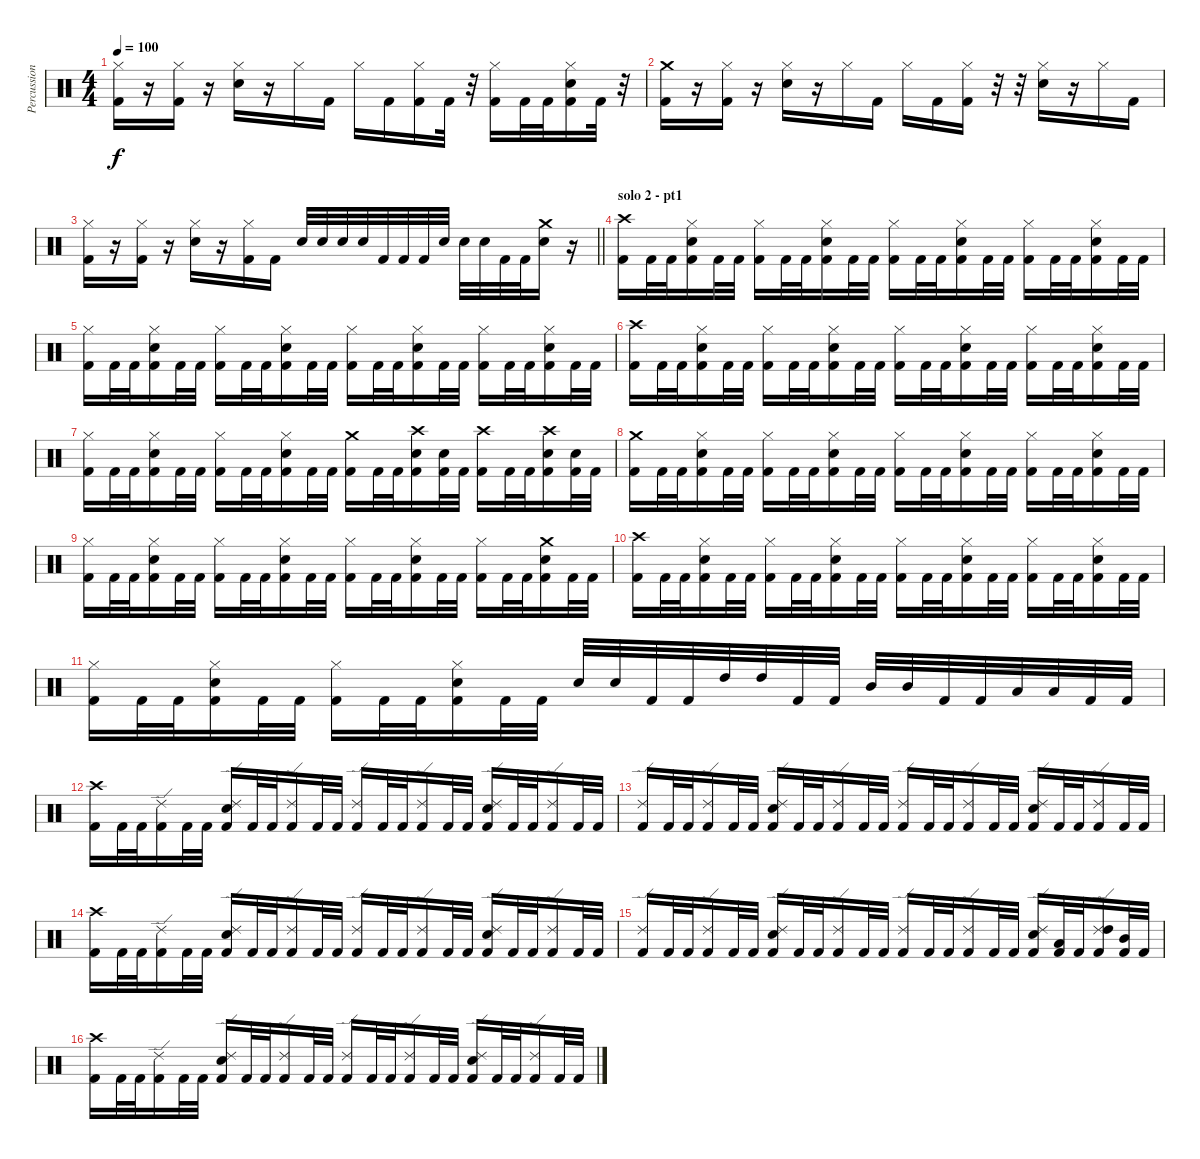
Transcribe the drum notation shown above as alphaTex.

\track ("Percussion" "Percussion") {instrument percussion}
\staff {score}
\articulation defaults
\ts (4 4)
\tempo 100
\clef neutral
\ks c
("Hi-Hat (closed)" "Kick (hit) 2").16{dy f} r.16 ("Hi-Hat (closed)" "Kick (hit) 2").16 r.16 ("Hi-Hat (closed)" "Electric Snare (hit)").16 r.16 "Hi-Hat (closed)".16 "Kick (hit) 2".16 "Hi-Hat (closed)".16 "Kick (hit) 2".16 ("Hi-Hat (closed)" "Kick (hit) 2").16 "Kick (hit) 2".32 r.32 ("Hi-Hat (closed)" "Kick (hit) 2").16 "Kick (hit) 2".32 "Kick (hit) 2".32 ("Hi-Hat (closed)" "Electric Snare (hit)" "Kick (hit) 2").16 "Kick (hit) 2".32 r.32 |
("Crash medium (hit)" "Kick (hit) 2").16 r.16 ("Hi-Hat (closed)" "Kick (hit) 2").16 r.16 ("Hi-Hat (closed)" "Electric Snare (hit)").16 r.16 "Hi-Hat (closed)".16 "Kick (hit) 2".16 "Hi-Hat (closed)".16 "Kick (hit) 2".16 ("Hi-Hat (closed)" "Kick (hit) 2").16 r.32 r.32 ("Hi-Hat (closed)" "Electric Snare (hit)").16 r.16 "Hi-Hat (closed)".16 "Kick (hit) 2".16 |
\barLineRight lightlight
("Hi-Hat (closed)" "Kick (hit) 2").16 r.16 ("Hi-Hat (closed)" "Kick (hit) 2").16 r.16 ("Hi-Hat (closed)" "Electric Snare (hit)").16 r.16 ("Hi-Hat (closed)" "Kick (hit) 2").16 "Kick (hit) 2".16 "Electric Snare (hit)".32 "Electric Snare (hit)".32 "Electric Snare (hit)".32 "Electric Snare (hit)".32 "Kick (hit) 2".32 "Kick (hit) 2".32 "Kick (hit) 2".32 "Electric Snare (hit)".32 "Electric Snare (hit)".32 "Electric Snare (hit)".32 "Kick (hit) 2".32 "Kick (hit) 2".32 ("Crash medium (hit)" "Electric Snare (hit)").16 r.16 |
\section ("" "solo 2 - pt1")
("Crash high (hit)" "Kick (hit) 2").16 "Kick (hit) 2".32 "Kick (hit) 2".32 ("Hi-Hat (closed)" "Electric Snare (hit)" "Kick (hit) 2").16 "Kick (hit) 2".32 "Kick (hit) 2".32 ("Hi-Hat (closed)" "Kick (hit) 2").16 "Kick (hit) 2".32 "Kick (hit) 2".32 ("Hi-Hat (closed)" "Electric Snare (hit)" "Kick (hit) 2").16 "Kick (hit) 2".32 "Kick (hit) 2".32 ("Hi-Hat (closed)" "Kick (hit) 2").16 "Kick (hit) 2".32 "Kick (hit) 2".32 ("Hi-Hat (closed)" "Electric Snare (hit)" "Kick (hit) 2").16 "Kick (hit) 2".32 "Kick (hit) 2".32 ("Hi-Hat (closed)" "Kick (hit) 2").16 "Kick (hit) 2".32 "Kick (hit) 2".32 ("Hi-Hat (closed)" "Electric Snare (hit)" "Kick (hit) 2").16 "Kick (hit) 2".32 "Kick (hit) 2".32 |
("Hi-Hat (closed)" "Kick (hit) 2").16 "Kick (hit) 2".32 "Kick (hit) 2".32 ("Hi-Hat (closed)" "Electric Snare (hit)" "Kick (hit) 2").16 "Kick (hit) 2".32 "Kick (hit) 2".32 ("Hi-Hat (closed)" "Kick (hit) 2").16 "Kick (hit) 2".32 "Kick (hit) 2".32 ("Hi-Hat (closed)" "Electric Snare (hit)" "Kick (hit) 2").16 "Kick (hit) 2".32 "Kick (hit) 2".32 ("Hi-Hat (closed)" "Kick (hit) 2").16 "Kick (hit) 2".32 "Kick (hit) 2".32 ("Hi-Hat (closed)" "Electric Snare (hit)" "Kick (hit) 2").16 "Kick (hit) 2".32 "Kick (hit) 2".32 ("Hi-Hat (closed)" "Kick (hit) 2").16 "Kick (hit) 2".32 "Kick (hit) 2".32 ("Hi-Hat (closed)" "Electric Snare (hit)" "Kick (hit) 2").16 "Kick (hit) 2".32 "Kick (hit) 2".32 |
("Crash high (hit)" "Kick (hit) 2").16 "Kick (hit) 2".32 "Kick (hit) 2".32 ("Hi-Hat (closed)" "Electric Snare (hit)" "Kick (hit) 2").16 "Kick (hit) 2".32 "Kick (hit) 2".32 ("Hi-Hat (closed)" "Kick (hit) 2").16 "Kick (hit) 2".32 "Kick (hit) 2".32 ("Hi-Hat (closed)" "Electric Snare (hit)" "Kick (hit) 2").16 "Kick (hit) 2".32 "Kick (hit) 2".32 ("Hi-Hat (closed)" "Kick (hit) 2").16 "Kick (hit) 2".32 "Kick (hit) 2".32 ("Hi-Hat (closed)" "Electric Snare (hit)" "Kick (hit) 2").16 "Kick (hit) 2".32 "Kick (hit) 2".32 ("Hi-Hat (closed)" "Kick (hit) 2").16 "Kick (hit) 2".32 "Kick (hit) 2".32 ("Hi-Hat (closed)" "Electric Snare (hit)" "Kick (hit) 2").16 "Kick (hit) 2".32 "Kick (hit) 2".32 |
("Hi-Hat (closed)" "Kick (hit) 2").16 "Kick (hit) 2".32 "Kick (hit) 2".32 ("Hi-Hat (closed)" "Electric Snare (hit)" "Kick (hit) 2").16 "Kick (hit) 2".32 "Kick (hit) 2".32 ("Hi-Hat (closed)" "Kick (hit) 2").16 "Kick (hit) 2".32 "Kick (hit) 2".32 ("Hi-Hat (closed)" "Electric Snare (hit)" "Kick (hit) 2").16 "Kick (hit) 2".32 "Kick (hit) 2".32 ("Crash medium (hit)" "Kick (hit) 2").16 "Kick (hit) 2".32 "Kick (hit) 2".32 ("Crash high (hit)" "Electric Snare (hit)" "Kick (hit) 2").16 ("Electric Snare (hit)" "Kick (hit) 2").32 "Kick (hit) 2".32 ("Crash high (hit)" "Kick (hit) 2").16 "Kick (hit) 2".32 "Kick (hit) 2".32 ("Crash high (hit)" "Electric Snare (hit)" "Kick (hit) 2").16 ("Electric Snare (hit)" "Kick (hit) 2").32 "Kick (hit) 2".32 |
("Crash medium (hit)" "Kick (hit) 2").16 "Kick (hit) 2".32 "Kick (hit) 2".32 ("Hi-Hat (closed)" "Electric Snare (hit)" "Kick (hit) 2").16 "Kick (hit) 2".32 "Kick (hit) 2".32 ("Hi-Hat (closed)" "Kick (hit) 2").16 "Kick (hit) 2".32 "Kick (hit) 2".32 ("Hi-Hat (closed)" "Electric Snare (hit)" "Kick (hit) 2").16 "Kick (hit) 2".32 "Kick (hit) 2".32 ("Hi-Hat (closed)" "Kick (hit) 2").16 "Kick (hit) 2".32 "Kick (hit) 2".32 ("Hi-Hat (closed)" "Electric Snare (hit)" "Kick (hit) 2").16 "Kick (hit) 2".32 "Kick (hit) 2".32 ("Hi-Hat (closed)" "Kick (hit) 2").16 "Kick (hit) 2".32 "Kick (hit) 2".32 ("Hi-Hat (closed)" "Electric Snare (hit)" "Kick (hit) 2").16 "Kick (hit) 2".32 "Kick (hit) 2".32 |
("Hi-Hat (closed)" "Kick (hit) 2").16 "Kick (hit) 2".32 "Kick (hit) 2".32 ("Hi-Hat (closed)" "Electric Snare (hit)" "Kick (hit) 2").16 "Kick (hit) 2".32 "Kick (hit) 2".32 ("Hi-Hat (closed)" "Kick (hit) 2").16 "Kick (hit) 2".32 "Kick (hit) 2".32 ("Hi-Hat (closed)" "Electric Snare (hit)" "Kick (hit) 2").16 "Kick (hit) 2".32 "Kick (hit) 2".32 ("Hi-Hat (closed)" "Kick (hit) 2").16 "Kick (hit) 2".32 "Kick (hit) 2".32 ("Hi-Hat (closed)" "Electric Snare (hit)" "Kick (hit) 2").16 "Kick (hit) 2".32 "Kick (hit) 2".32 ("Hi-Hat (closed)" "Kick (hit) 2").16 "Kick (hit) 2".32 "Kick (hit) 2".32 ("Crash medium (hit)" "Electric Snare (hit)" "Kick (hit) 2").16 "Kick (hit) 2".32 "Kick (hit) 2".32 |
("Crash high (hit)" "Kick (hit) 2").16 "Kick (hit) 2".32 "Kick (hit) 2".32 ("Hi-Hat (closed)" "Electric Snare (hit)" "Kick (hit) 2").16 "Kick (hit) 2".32 "Kick (hit) 2".32 ("Hi-Hat (closed)" "Kick (hit) 2").16 "Kick (hit) 2".32 "Kick (hit) 2".32 ("Hi-Hat (closed)" "Electric Snare (hit)" "Kick (hit) 2").16 "Kick (hit) 2".32 "Kick (hit) 2".32 ("Hi-Hat (closed)" "Kick (hit) 2").16 "Kick (hit) 2".32 "Kick (hit) 2".32 ("Hi-Hat (closed)" "Electric Snare (hit)" "Kick (hit) 2").16 "Kick (hit) 2".32 "Kick (hit) 2".32 ("Hi-Hat (closed)" "Kick (hit) 2").16 "Kick (hit) 2".32 "Kick (hit) 2".32 ("Hi-Hat (closed)" "Electric Snare (hit)" "Kick (hit) 2").16 "Kick (hit) 2".32 "Kick (hit) 2".32 |
("Hi-Hat (closed)" "Kick (hit) 2").16 "Kick (hit) 2".32 "Kick (hit) 2".32 ("Hi-Hat (closed)" "Electric Snare (hit)" "Kick (hit) 2").16 "Kick (hit) 2".32 "Kick (hit) 2".32 ("Hi-Hat (closed)" "Kick (hit) 2").16 "Kick (hit) 2".32 "Kick (hit) 2".32 ("Hi-Hat (closed)" "Electric Snare (hit)" "Kick (hit) 2").16 "Kick (hit) 2".32 "Kick (hit) 2".32 "Electric Snare (hit)".32 "Electric Snare (hit)".32 "Kick (hit) 2".32 "Kick (hit) 2".32 "High Tom (hit)".32 "High Tom (hit)".32 "Kick (hit) 2".32 "Kick (hit) 2".32 "Mid Tom (hit)".32 "Mid Tom (hit)".32 "Kick (hit) 2".32 "Kick (hit) 2".32 "Low Tom (hit)".32 "Low Tom (hit)".32 "Kick (hit) 2".32 "Kick (hit) 2".32 |
("Crash high (hit)" "Kick (hit) 2").16 "Kick (hit) 2".32 "Kick (hit) 2".32 ("Ride (edge) 2" "Kick (hit) 2").16 "Kick (hit) 2".32 "Kick (hit) 2".32 ("Ride (edge) 2" "Electric Snare (hit)" "Kick (hit) 2").16 "Kick (hit) 2".32 "Kick (hit) 2".32 ("Ride (edge) 2" "Kick (hit) 2").16 "Kick (hit) 2".32 "Kick (hit) 2".32 ("Ride (edge) 2" "Kick (hit) 2").16 "Kick (hit) 2".32 "Kick (hit) 2".32 ("Ride (edge) 2" "Kick (hit) 2").16 "Kick (hit) 2".32 "Kick (hit) 2".32 ("Ride (edge) 2" "Electric Snare (hit)" "Kick (hit) 2").16 "Kick (hit) 2".32 "Kick (hit) 2".32 ("Ride (edge) 2" "Kick (hit) 2").16 "Kick (hit) 2".32 "Kick (hit) 2".32 |
("Ride (edge) 2" "Kick (hit) 2").16 "Kick (hit) 2".32 "Kick (hit) 2".32 ("Ride (edge) 2" "Kick (hit) 2").16 "Kick (hit) 2".32 "Kick (hit) 2".32 ("Ride (edge) 2" "Electric Snare (hit)" "Kick (hit) 2").16 "Kick (hit) 2".32 "Kick (hit) 2".32 ("Ride (edge) 2" "Kick (hit) 2").16 "Kick (hit) 2".32 "Kick (hit) 2".32 ("Ride (edge) 2" "Kick (hit) 2").16 "Kick (hit) 2".32 "Kick (hit) 2".32 ("Ride (edge) 2" "Kick (hit) 2").16 "Kick (hit) 2".32 "Kick (hit) 2".32 ("Ride (edge) 2" "Electric Snare (hit)" "Kick (hit) 2").16 "Kick (hit) 2".32 "Kick (hit) 2".32 ("Ride (edge) 2" "Kick (hit) 2").16 "Kick (hit) 2".32 "Kick (hit) 2".32 |
("Crash high (hit)" "Kick (hit) 2").16 "Kick (hit) 2".32 "Kick (hit) 2".32 ("Ride (edge) 2" "Kick (hit) 2").16 "Kick (hit) 2".32 "Kick (hit) 2".32 ("Ride (edge) 2" "Electric Snare (hit)" "Kick (hit) 2").16 "Kick (hit) 2".32 "Kick (hit) 2".32 ("Ride (edge) 2" "Kick (hit) 2").16 "Kick (hit) 2".32 "Kick (hit) 2".32 ("Ride (edge) 2" "Kick (hit) 2").16 "Kick (hit) 2".32 "Kick (hit) 2".32 ("Ride (edge) 2" "Kick (hit) 2").16 "Kick (hit) 2".32 "Kick (hit) 2".32 ("Ride (edge) 2" "Electric Snare (hit)" "Kick (hit) 2").16 "Kick (hit) 2".32 "Kick (hit) 2".32 ("Ride (edge) 2" "Kick (hit) 2").16 "Kick (hit) 2".32 "Kick (hit) 2".32 |
("Ride (edge) 2" "Kick (hit) 2").16 "Kick (hit) 2".32 "Kick (hit) 2".32 ("Ride (edge) 2" "Kick (hit) 2").16 "Kick (hit) 2".32 "Kick (hit) 2".32 ("Ride (edge) 2" "Electric Snare (hit)" "Kick (hit) 2").16 "Kick (hit) 2".32 "Kick (hit) 2".32 ("Ride (edge) 2" "Kick (hit) 2").16 "Kick (hit) 2".32 "Kick (hit) 2".32 ("Ride (edge) 2" "Kick (hit) 2").16 "Kick (hit) 2".32 "Kick (hit) 2".32 ("Ride (edge) 2" "Kick (hit) 2").16 "Kick (hit) 2".32 "Kick (hit) 2".32 ("Ride (edge) 2" "Electric Snare (hit)" "Kick (hit) 2").16 ("Low Tom (hit)" "Kick (hit) 2").32 "Kick (hit) 2".32 ("Ride (edge) 2" "High Tom (hit)" "Kick (hit) 2").16 ("Mid Tom (hit)" "Kick (hit) 2").32 "Kick (hit) 2".32 |
("Crash high (hit)" "Kick (hit) 2").16 "Kick (hit) 2".32 "Kick (hit) 2".32 ("Ride (edge) 2" "Kick (hit) 2").16 "Kick (hit) 2".32 "Kick (hit) 2".32 ("Ride (edge) 2" "Electric Snare (hit)" "Kick (hit) 2").16 "Kick (hit) 2".32 "Kick (hit) 2".32 ("Ride (edge) 2" "Kick (hit) 2").16 "Kick (hit) 2".32 "Kick (hit) 2".32 ("Ride (edge) 2" "Kick (hit) 2").16 "Kick (hit) 2".32 "Kick (hit) 2".32 ("Ride (edge) 2" "Kick (hit) 2").16 "Kick (hit) 2".32 "Kick (hit) 2".32 ("Ride (edge) 2" "Electric Snare (hit)" "Kick (hit) 2").16 "Kick (hit) 2".32 "Kick (hit) 2".32 ("Ride (edge) 2" "Kick (hit) 2").16 "Kick (hit) 2".32 "Kick (hit) 2".32
